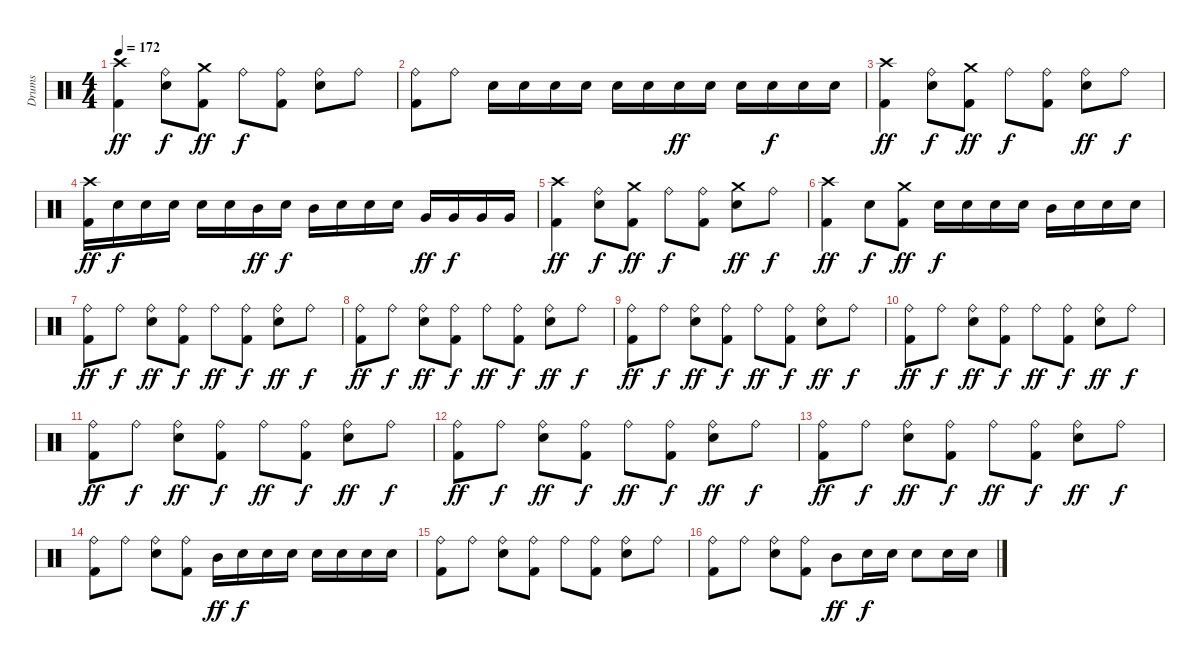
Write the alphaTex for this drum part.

\track ("Drums" "Drums") {instrument percussion}
\staff {score}
\articulation defaults
\ts (4 4)
\tempo 172
\clef neutral
\ks c
("Crash high (hit)" "Kick (hit) 2").4{dy ff} ("Ride (bell)" "Electric Snare (hit)").8{dy f} ("Crash medium (hit)" "Kick (hit) 2").8{dy ff} "Ride (bell)".8{dy f} ("Ride (bell)" "Kick (hit) 2").8 ("Ride (bell)" "Electric Snare (hit)").8 "Ride (bell)".8 |
("Ride (bell)" "Kick (hit) 2").8 "Ride (bell)".8 "Electric Snare (hit)".16 "Electric Snare (hit)".16 "Electric Snare (hit)".16 "Electric Snare (hit)".16 "Electric Snare (hit)".16 "Electric Snare (hit)".16 "Electric Snare (hit)".16{dy ff} "Electric Snare (hit)".16 "Electric Snare (hit)".16 "Electric Snare (hit)".16{dy f} "Electric Snare (hit)".16 "Electric Snare (hit)".16 |
("Crash high (hit)" "Kick (hit) 2").4{dy ff} ("Ride (bell)" "Electric Snare (hit)").8{dy f} ("Crash medium (hit)" "Kick (hit) 2").8{dy ff} "Ride (bell)".8{dy f} ("Ride (bell)" "Kick (hit) 2").8 ("Ride (bell)" "Electric Snare (hit)").8{dy ff} "Ride (bell)".8{dy f} |
("Crash high (hit)" "Kick (hit) 2").16{dy ff} "Electric Snare (hit)".16{dy f} "Electric Snare (hit)".16 "Electric Snare (hit)".16 "Electric Snare (hit)".16 "Electric Snare (hit)".16 "Mid Tom (hit)".16{dy ff} "Electric Snare (hit)".16{dy f} "Mid Tom (hit)".16 "Electric Snare (hit)".16 "Electric Snare (hit)".16 "Electric Snare (hit)".16 "Very Low Tom (hit)".16{dy ff} "Very Low Tom (hit)".16{dy f} "Very Low Tom (hit)".16 "Very Low Tom (hit)".16 |
("Crash high (hit)" "Kick (hit) 2").4{dy ff} ("Ride (bell)" "Electric Snare (hit)").8{dy f} ("Crash medium (hit)" "Kick (hit) 2").8{dy ff} "Ride (bell)".8{dy f} ("Ride (bell)" "Kick (hit) 2").8 ("Crash medium (hit)" "Electric Snare (hit)").8{dy ff} "Ride (bell)".8{dy f} |
("Crash high (hit)" "Kick (hit) 2").4{dy ff} "Electric Snare (hit)".8{dy f} ("Crash medium (hit)" "Kick (hit) 2").8{dy ff} "Electric Snare (hit)".16{dy f} "Electric Snare (hit)".16 "Electric Snare (hit)".16 "Electric Snare (hit)".16 "Mid Tom (hit)".16 "Electric Snare (hit)".16 "Electric Snare (hit)".16 "Electric Snare (hit)".16 |
("Ride (bell)" "Kick (hit) 2").8{dy ff} "Ride (bell)".8{dy f} ("Ride (bell)" "Electric Snare (hit)").8{dy ff} ("Ride (bell)" "Kick (hit) 2").8{dy f} "Ride (bell)".8{dy ff} ("Ride (bell)" "Kick (hit) 2").8{dy f} ("Ride (bell)" "Electric Snare (hit)").8{dy ff} "Ride (bell)".8{dy f} |
("Ride (bell)" "Kick (hit) 2").8{dy ff} "Ride (bell)".8{dy f} ("Ride (bell)" "Electric Snare (hit)").8{dy ff} ("Ride (bell)" "Kick (hit) 2").8{dy f} "Ride (bell)".8{dy ff} ("Ride (bell)" "Kick (hit) 2").8{dy f} ("Ride (bell)" "Electric Snare (hit)").8{dy ff} "Ride (bell)".8{dy f} |
("Ride (bell)" "Kick (hit) 2").8{dy ff} "Ride (bell)".8{dy f} ("Ride (bell)" "Electric Snare (hit)").8{dy ff} ("Ride (bell)" "Kick (hit) 2").8{dy f} "Ride (bell)".8{dy ff} ("Ride (bell)" "Kick (hit) 2").8{dy f} ("Ride (bell)" "Electric Snare (hit)").8{dy ff} "Ride (bell)".8{dy f} |
("Ride (bell)" "Kick (hit) 2").8{dy ff} "Ride (bell)".8{dy f} ("Ride (bell)" "Electric Snare (hit)").8{dy ff} ("Ride (bell)" "Kick (hit) 2").8{dy f} "Ride (bell)".8{dy ff} ("Ride (bell)" "Kick (hit) 2").8{dy f} ("Ride (bell)" "Electric Snare (hit)").8{dy ff} "Ride (bell)".8{dy f} |
("Ride (bell)" "Kick (hit) 2").8{dy ff} "Ride (bell)".8{dy f} ("Ride (bell)" "Electric Snare (hit)").8{dy ff} ("Ride (bell)" "Kick (hit) 2").8{dy f} "Ride (bell)".8{dy ff} ("Ride (bell)" "Kick (hit) 2").8{dy f} ("Ride (bell)" "Electric Snare (hit)").8{dy ff} "Ride (bell)".8{dy f} |
("Ride (bell)" "Kick (hit) 2").8{dy ff} "Ride (bell)".8{dy f} ("Ride (bell)" "Electric Snare (hit)").8{dy ff} ("Ride (bell)" "Kick (hit) 2").8{dy f} "Ride (bell)".8{dy ff} ("Ride (bell)" "Kick (hit) 2").8{dy f} ("Ride (bell)" "Electric Snare (hit)").8{dy ff} "Ride (bell)".8{dy f} |
("Ride (bell)" "Kick (hit) 2").8{dy ff} "Ride (bell)".8{dy f} ("Ride (bell)" "Electric Snare (hit)").8{dy ff} ("Ride (bell)" "Kick (hit) 2").8{dy f} "Ride (bell)".8{dy ff} ("Ride (bell)" "Kick (hit) 2").8{dy f} ("Ride (bell)" "Electric Snare (hit)").8{dy ff} "Ride (bell)".8{dy f} |
("Ride (bell)" "Kick (hit) 2").8 "Ride (bell)".8 ("Ride (bell)" "Electric Snare (hit)").8 ("Ride (bell)" "Kick (hit) 2").8 "Mid Tom (hit)".16{dy ff} "Electric Snare (hit)".16{dy f} "Electric Snare (hit)".16 "Electric Snare (hit)".16 "Electric Snare (hit)".16 "Electric Snare (hit)".16 "Electric Snare (hit)".16 "Electric Snare (hit)".16 |
("Ride (bell)" "Kick (hit) 2").8 "Ride (bell)".8 ("Ride (bell)" "Electric Snare (hit)").8 ("Ride (bell)" "Kick (hit) 2").8 "Ride (bell)".8 ("Ride (bell)" "Kick (hit) 2").8 ("Ride (bell)" "Electric Snare (hit)").8 "Ride (bell)".8 |
("Ride (bell)" "Kick (hit) 2").8 "Ride (bell)".8 ("Ride (bell)" "Electric Snare (hit)").8 ("Ride (bell)" "Kick (hit) 2").8 "Mid Tom (hit)".8{dy ff} "Electric Snare (hit)".16{dy f} "Electric Snare (hit)".16 "Electric Snare (hit)".8 "Electric Snare (hit)".16 "Electric Snare (hit)".16
